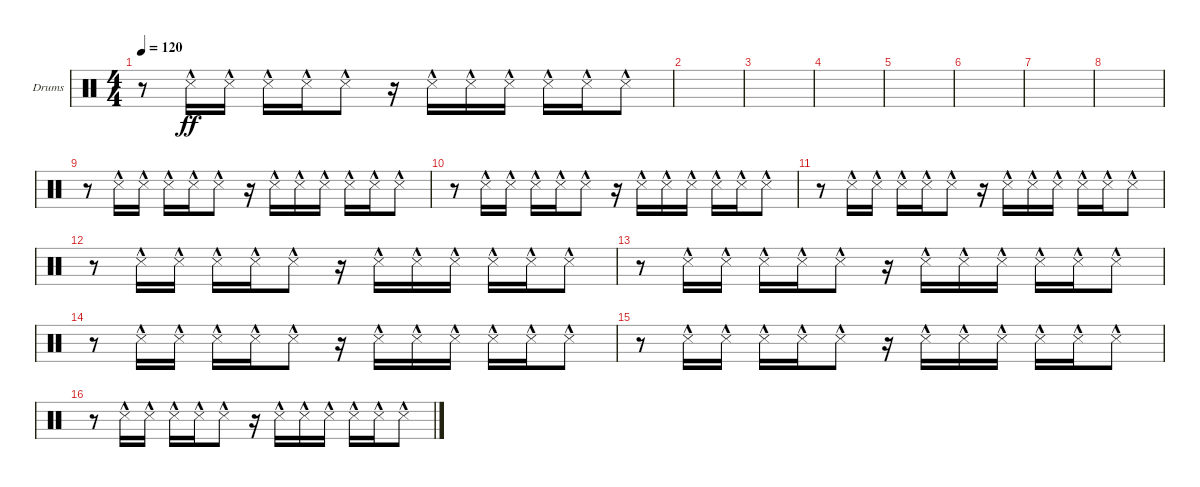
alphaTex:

\defaultSystemsLayout 4
\bracketExtendMode nobrackets
\firstSystemTrackNameOrientation horizontal
\otherSystemsTrackNameOrientation horizontal
\track ("Drumkit" "Drums") {instrument percussion}
\staff {score}
\articulation defaults
\ts (4 4)
\tempo 120
\clef neutral
\ks c
r.8{dy fff} "Snare (side stick) 3"{hac}.16{dy ff} "Snare (side stick) 3"{hac}.16 "Snare (side stick) 3"{hac}.16 "Snare (side stick) 3"{hac}.16 "Snare (side stick) 3"{hac}.8 r.16 "Snare (side stick) 3"{hac}.16 "Snare (side stick) 3"{hac}.16 "Snare (side stick) 3"{hac}.16 "Snare (side stick) 3"{hac}.16 "Snare (side stick) 3"{hac}.16 "Snare (side stick) 3"{hac}.8 |
|
|
|
|
|
|
|
r.8 "Snare (side stick) 3"{hac}.16 "Snare (side stick) 3"{hac}.16 "Snare (side stick) 3"{hac}.16 "Snare (side stick) 3"{hac}.16 "Snare (side stick) 3"{hac}.8 r.16 "Snare (side stick) 3"{hac}.16 "Snare (side stick) 3"{hac}.16 "Snare (side stick) 3"{hac}.16 "Snare (side stick) 3"{hac}.16 "Snare (side stick) 3"{hac}.16 "Snare (side stick) 3"{hac}.8 |
r.8 "Snare (side stick) 3"{hac}.16 "Snare (side stick) 3"{hac}.16 "Snare (side stick) 3"{hac}.16 "Snare (side stick) 3"{hac}.16 "Snare (side stick) 3"{hac}.8 r.16 "Snare (side stick) 3"{hac}.16 "Snare (side stick) 3"{hac}.16 "Snare (side stick) 3"{hac}.16 "Snare (side stick) 3"{hac}.16 "Snare (side stick) 3"{hac}.16 "Snare (side stick) 3"{hac}.8 |
r.8 "Snare (side stick) 3"{hac}.16 "Snare (side stick) 3"{hac}.16 "Snare (side stick) 3"{hac}.16 "Snare (side stick) 3"{hac}.16 "Snare (side stick) 3"{hac}.8 r.16 "Snare (side stick) 3"{hac}.16 "Snare (side stick) 3"{hac}.16 "Snare (side stick) 3"{hac}.16 "Snare (side stick) 3"{hac}.16 "Snare (side stick) 3"{hac}.16 "Snare (side stick) 3"{hac}.8 |
r.8 "Snare (side stick) 3"{hac}.16 "Snare (side stick) 3"{hac}.16 "Snare (side stick) 3"{hac}.16 "Snare (side stick) 3"{hac}.16 "Snare (side stick) 3"{hac}.8 r.16 "Snare (side stick) 3"{hac}.16 "Snare (side stick) 3"{hac}.16 "Snare (side stick) 3"{hac}.16 "Snare (side stick) 3"{hac}.16 "Snare (side stick) 3"{hac}.16 "Snare (side stick) 3"{hac}.8 |
r.8 "Snare (side stick) 3"{hac}.16 "Snare (side stick) 3"{hac}.16 "Snare (side stick) 3"{hac}.16 "Snare (side stick) 3"{hac}.16 "Snare (side stick) 3"{hac}.8 r.16 "Snare (side stick) 3"{hac}.16 "Snare (side stick) 3"{hac}.16 "Snare (side stick) 3"{hac}.16 "Snare (side stick) 3"{hac}.16 "Snare (side stick) 3"{hac}.16 "Snare (side stick) 3"{hac}.8 |
r.8 "Snare (side stick) 3"{hac}.16 "Snare (side stick) 3"{hac}.16 "Snare (side stick) 3"{hac}.16 "Snare (side stick) 3"{hac}.16 "Snare (side stick) 3"{hac}.8 r.16 "Snare (side stick) 3"{hac}.16 "Snare (side stick) 3"{hac}.16 "Snare (side stick) 3"{hac}.16 "Snare (side stick) 3"{hac}.16 "Snare (side stick) 3"{hac}.16 "Snare (side stick) 3"{hac}.8 |
r.8 "Snare (side stick) 3"{hac}.16 "Snare (side stick) 3"{hac}.16 "Snare (side stick) 3"{hac}.16 "Snare (side stick) 3"{hac}.16 "Snare (side stick) 3"{hac}.8 r.16 "Snare (side stick) 3"{hac}.16 "Snare (side stick) 3"{hac}.16 "Snare (side stick) 3"{hac}.16 "Snare (side stick) 3"{hac}.16 "Snare (side stick) 3"{hac}.16 "Snare (side stick) 3"{hac}.8 |
r.8 "Snare (side stick) 3"{hac}.16 "Snare (side stick) 3"{hac}.16 "Snare (side stick) 3"{hac}.16 "Snare (side stick) 3"{hac}.16 "Snare (side stick) 3"{hac}.8 r.16 "Snare (side stick) 3"{hac}.16 "Snare (side stick) 3"{hac}.16 "Snare (side stick) 3"{hac}.16 "Snare (side stick) 3"{hac}.16 "Snare (side stick) 3"{hac}.16 "Snare (side stick) 3"{hac}.8
